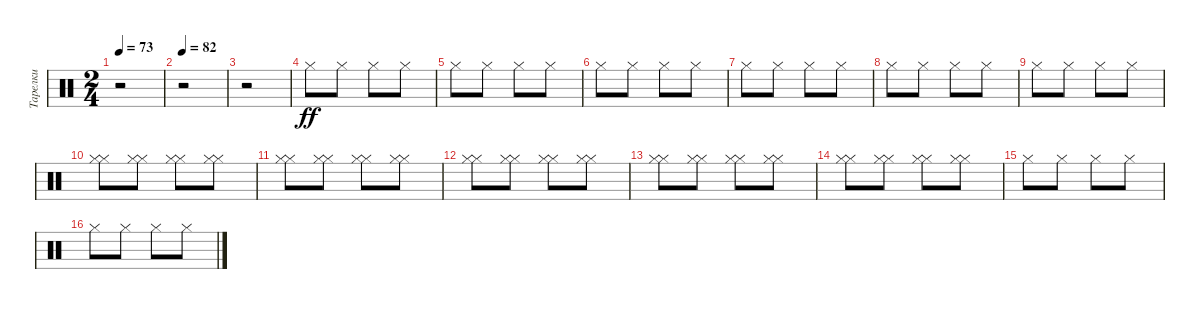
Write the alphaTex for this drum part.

\track ("Тарелки" "Тарелки") {instrument percussion}
\staff {score}
\articulation defaults
\ts (2 4)
\tempo 73
\clef neutral
\ks c
r.2{dy ff} |
\tempo 82
r.2 |
r.2 |
"Hi-Hat (closed)".8 "Hi-Hat (closed)".8 "Hi-Hat (closed)".8 "Hi-Hat (closed)".8 |
"Hi-Hat (closed)".8 "Hi-Hat (closed)".8 "Hi-Hat (closed)".8 "Hi-Hat (closed)".8 |
"Hi-Hat (closed)".8 "Hi-Hat (closed)".8 "Hi-Hat (closed)".8 "Hi-Hat (closed)".8 |
"Hi-Hat (closed)".8 "Hi-Hat (closed)".8 "Hi-Hat (closed)".8 "Hi-Hat (closed)".8 |
"Hi-Hat (closed)".8 "Hi-Hat (closed)".8 "Hi-Hat (closed)".8 "Hi-Hat (closed)".8 |
"Hi-Hat (closed)".8 "Hi-Hat (closed)".8 "Hi-Hat (closed)".8 "Hi-Hat (closed)".8 |
("Hi-Hat (closed)" "Hi-Hat (closed)").8 ("Hi-Hat (closed)" "Hi-Hat (closed)").8 ("Hi-Hat (closed)" "Hi-Hat (closed)").8 ("Hi-Hat (closed)" "Hi-Hat (closed)").8 |
("Hi-Hat (closed)" "Hi-Hat (closed)").8 ("Hi-Hat (closed)" "Hi-Hat (closed)").8 ("Hi-Hat (closed)" "Hi-Hat (closed)").8 ("Hi-Hat (closed)" "Hi-Hat (closed)").8 |
("Hi-Hat (closed)" "Hi-Hat (closed)").8 ("Hi-Hat (closed)" "Hi-Hat (closed)").8 ("Hi-Hat (closed)" "Hi-Hat (closed)").8 ("Hi-Hat (closed)" "Hi-Hat (closed)").8 |
("Hi-Hat (closed)" "Hi-Hat (closed)").8 ("Hi-Hat (closed)" "Hi-Hat (closed)").8 ("Hi-Hat (closed)" "Hi-Hat (closed)").8 ("Hi-Hat (closed)" "Hi-Hat (closed)").8 |
("Hi-Hat (closed)" "Hi-Hat (closed)").8 ("Hi-Hat (closed)" "Hi-Hat (closed)").8 ("Hi-Hat (closed)" "Hi-Hat (closed)").8 ("Hi-Hat (closed)" "Hi-Hat (closed)").8 |
"Hi-Hat (closed)".8 "Hi-Hat (closed)".8 "Hi-Hat (closed)".8 "Hi-Hat (closed)".8 |
"Hi-Hat (closed)".8 "Hi-Hat (closed)".8 "Hi-Hat (closed)".8 "Hi-Hat (closed)".8
